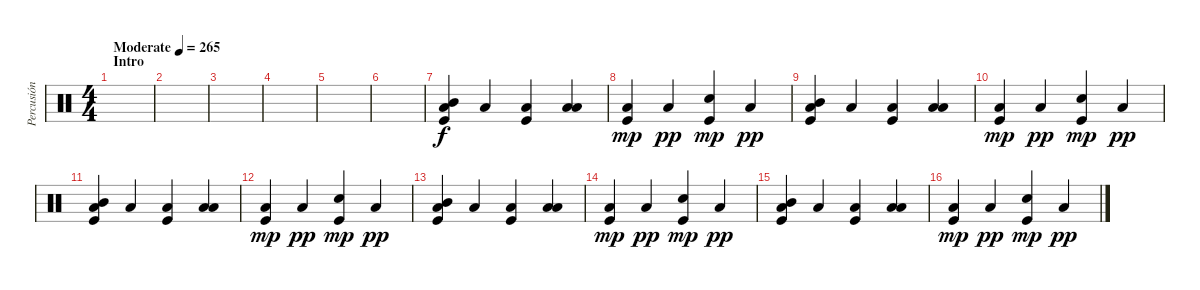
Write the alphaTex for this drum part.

\track ("Percusión" "Percusión") {instrument percussion}
\staff {score}
\articulation defaults
\ts (4 4)
\section ("" "Intro")
\tempo (265 "Moderate")
\clef neutral
\ks c
|
|
|
|
|
|
("Mid Tom (hit)" "Low Floor Tom (hit)" "Kick (hit)").4 "Low Floor Tom (hit)".4 ("Low Floor Tom (hit)" "Kick (hit)").4 ("Low Tom (hit)" "Low Floor Tom (hit)").4 |
("Low Floor Tom (hit)" "Kick (hit)").4{dy mp} "Low Floor Tom (hit)".4{dy pp} ("Electric Snare (hit)" "Kick (hit)").4{dy mp} "Low Floor Tom (hit)".4{dy pp} |
("Mid Tom (hit)" "Low Floor Tom (hit)" "Kick (hit)").4 "Low Floor Tom (hit)".4 ("Low Floor Tom (hit)" "Kick (hit)").4 ("Low Tom (hit)" "Low Floor Tom (hit)").4 |
("Low Floor Tom (hit)" "Kick (hit)").4{dy mp} "Low Floor Tom (hit)".4{dy pp} ("Electric Snare (hit)" "Kick (hit)").4{dy mp} "Low Floor Tom (hit)".4{dy pp} |
("Mid Tom (hit)" "Low Floor Tom (hit)" "Kick (hit)").4 "Low Floor Tom (hit)".4 ("Low Floor Tom (hit)" "Kick (hit)").4 ("Low Tom (hit)" "Low Floor Tom (hit)").4 |
("Low Floor Tom (hit)" "Kick (hit)").4{dy mp} "Low Floor Tom (hit)".4{dy pp} ("Electric Snare (hit)" "Kick (hit)").4{dy mp} "Low Floor Tom (hit)".4{dy pp} |
("Mid Tom (hit)" "Low Floor Tom (hit)" "Kick (hit)").4 "Low Floor Tom (hit)".4 ("Low Floor Tom (hit)" "Kick (hit)").4 ("Low Tom (hit)" "Low Floor Tom (hit)").4 |
("Low Floor Tom (hit)" "Kick (hit)").4{dy mp} "Low Floor Tom (hit)".4{dy pp} ("Electric Snare (hit)" "Kick (hit)").4{dy mp} "Low Floor Tom (hit)".4{dy pp} |
("Mid Tom (hit)" "Low Floor Tom (hit)" "Kick (hit)").4 "Low Floor Tom (hit)".4 ("Low Floor Tom (hit)" "Kick (hit)").4 ("Low Tom (hit)" "Low Floor Tom (hit)").4 |
("Low Floor Tom (hit)" "Kick (hit)").4{dy mp} "Low Floor Tom (hit)".4{dy pp} ("Electric Snare (hit)" "Kick (hit)").4{dy mp} "Low Floor Tom (hit)".4{dy pp}
